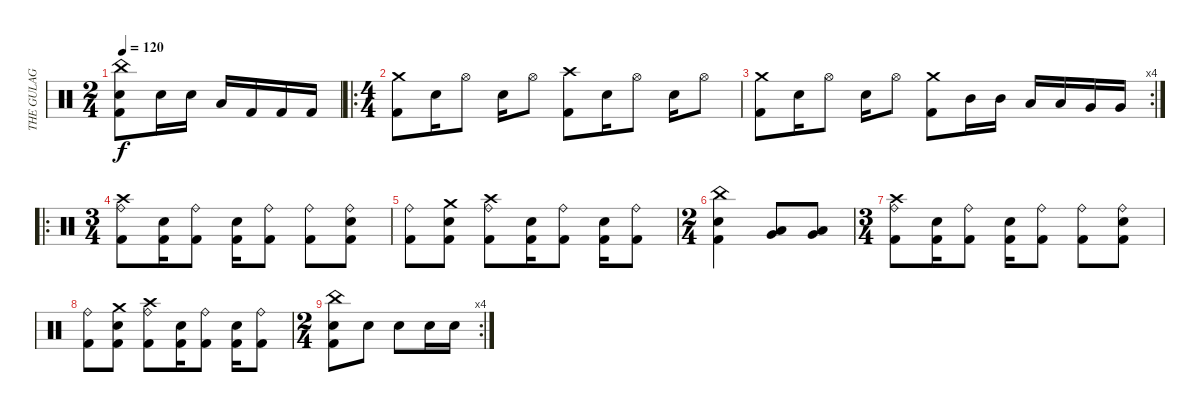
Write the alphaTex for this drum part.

\track ("THE GULAG" "THE GULAG") {instrument percussion}
\staff {score}
\articulation defaults
\ts (2 4)
\tempo 120
\clef neutral
\ks c
("China (hit)" "Snare (hit) 2" "Kick (hit) 2").8{dy f} "Snare (hit) 2".16 "Snare (hit) 2".16 "Low Tom (hit)".16 "Kick (hit) 2".16 "Kick (hit) 2".16 "Kick (hit) 2".16 |
\ro
\ts (4 4)
("Crash medium (hit)" "Kick (hit) 2").8 "Snare (hit) 2".16 "Hi-Hat (open)".8 "Snare (hit) 2".16 "Hi-Hat (open)".8 ("Crash high (hit)" "Kick (hit) 2").8 "Snare (hit) 2".16 "Hi-Hat (open)".8 "Snare (hit) 2".16 "Hi-Hat (open)".8 |
\rc 4
("Crash medium (hit)" "Kick (hit) 2").8 "Snare (hit) 2".16 "Hi-Hat (open)".8 "Snare (hit) 2".16 "Hi-Hat (open)".8 ("Crash medium (hit)" "Kick (hit) 2").8 "Mid Tom (hit)".16 "Mid Tom (hit)".16 "Low Tom (hit)".16 "Low Tom (hit)".16 "Very Low Tom (hit)".16 "Very Low Tom (hit)".16 |
\ro
\ts (3 4)
("Crash high (hit)" "Ride (bell)" "Kick (hit) 2").8 ("Snare (hit) 2" "Kick (hit) 2").16 ("Ride (bell)" "Kick (hit) 2").8 ("Snare (hit) 2" "Kick (hit) 2").16 ("Ride (bell)" "Kick (hit) 2").8 ("Ride (bell)" "Kick (hit) 2").8 ("Ride (bell)" "Snare (hit) 2" "Kick (hit) 2").8 |
("Ride (bell)" "Kick (hit) 2").8 ("Crash medium (hit)" "Snare (hit) 2" "Kick (hit) 2").8 ("Crash high (hit)" "Ride (bell)" "Kick (hit) 2").8 ("Snare (hit) 2" "Kick (hit) 2").16 ("Ride (bell)" "Kick (hit) 2").8 ("Snare (hit) 2" "Kick (hit) 2").16 ("Ride (bell)" "Kick (hit) 2").8 |
\ts (2 4)
("China (hit)" "Snare (hit) 2" "Kick (hit) 2").4 ("Low Tom (hit)" "Very Low Tom (hit)").8 ("Very Low Tom (hit)" "Low Floor Tom (hit)").8 |
\ts (3 4)
("Crash high (hit)" "Ride (bell)" "Kick (hit) 2").8 ("Snare (hit) 2" "Kick (hit) 2").16 ("Ride (bell)" "Kick (hit) 2").8 ("Snare (hit) 2" "Kick (hit) 2").16 ("Ride (bell)" "Kick (hit) 2").8 ("Ride (bell)" "Kick (hit) 2").8 ("Ride (bell)" "Snare (hit) 2" "Kick (hit) 2").8 |
("Ride (bell)" "Kick (hit) 2").8 ("Crash medium (hit)" "Snare (hit) 2" "Kick (hit) 2").8 ("Crash high (hit)" "Ride (bell)" "Kick (hit) 2").8 ("Snare (hit) 2" "Kick (hit) 2").16 ("Ride (bell)" "Kick (hit) 2").8 ("Snare (hit) 2" "Kick (hit) 2").16 ("Ride (bell)" "Kick (hit) 2").8 |
\rc 4
\ts (2 4)
("China (hit)" "Snare (hit) 2" "Kick (hit) 2").8 "Snare (hit) 2".8 "Snare (hit) 2".8 "Snare (hit) 2".16 "Snare (hit) 2".16
